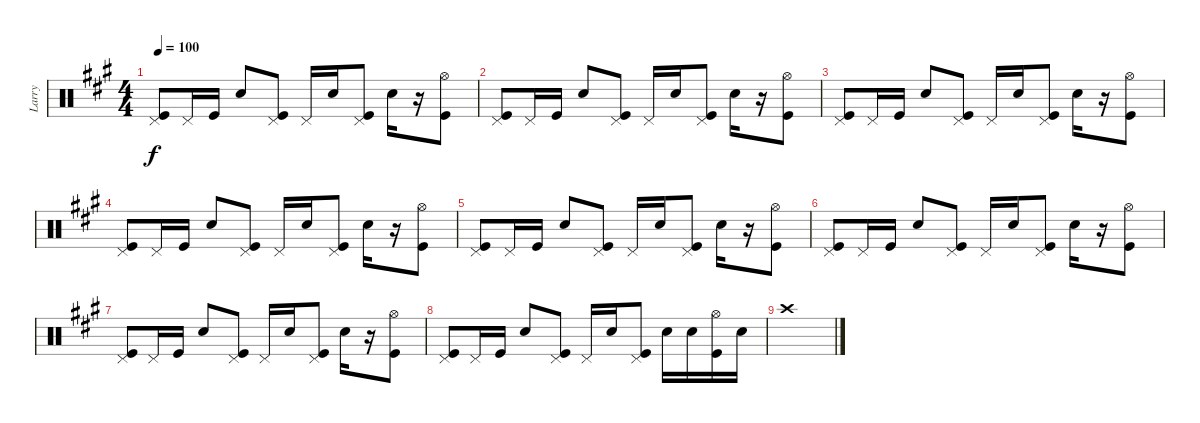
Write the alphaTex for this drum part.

\track ("Larry" "Larry") {instrument percussion}
\staff {score}
\articulation defaults
\ts (4 4)
\tempo 100
\clef neutral
\ks f#minor
("Pedal Hi-Hat (hit)" "Kick (hit)").8{dy f} "Pedal Hi-Hat (hit)".16 "Kick (hit)".16 "Snare (hit) 2".8 ("Pedal Hi-Hat (hit)" "Kick (hit)").8 "Pedal Hi-Hat (hit)".16 "Snare (hit) 2".16 ("Pedal Hi-Hat (hit)" "Kick (hit)").8 "Snare (hit) 2".16 r.16 ("Hi-Hat (open)" "Kick (hit)").8 |
("Pedal Hi-Hat (hit)" "Kick (hit)").8 "Pedal Hi-Hat (hit)".16 "Kick (hit)".16 "Snare (hit) 2".8 ("Pedal Hi-Hat (hit)" "Kick (hit)").8 "Pedal Hi-Hat (hit)".16 "Snare (hit) 2".16 ("Pedal Hi-Hat (hit)" "Kick (hit)").8 "Snare (hit) 2".16 r.16 ("Hi-Hat (open)" "Kick (hit)").8 |
("Pedal Hi-Hat (hit)" "Kick (hit)").8 "Pedal Hi-Hat (hit)".16 "Kick (hit)".16 "Snare (hit) 2".8 ("Pedal Hi-Hat (hit)" "Kick (hit)").8 "Pedal Hi-Hat (hit)".16 "Snare (hit) 2".16 ("Pedal Hi-Hat (hit)" "Kick (hit)").8 "Snare (hit) 2".16 r.16 ("Hi-Hat (open)" "Kick (hit)").8 |
("Pedal Hi-Hat (hit)" "Kick (hit)").8 "Pedal Hi-Hat (hit)".16 "Kick (hit)".16 "Snare (hit) 2".8 ("Pedal Hi-Hat (hit)" "Kick (hit)").8 "Pedal Hi-Hat (hit)".16 "Snare (hit) 2".16 ("Pedal Hi-Hat (hit)" "Kick (hit)").8 "Snare (hit) 2".16 r.16 ("Hi-Hat (open)" "Kick (hit)").8 |
("Pedal Hi-Hat (hit)" "Kick (hit)").8 "Pedal Hi-Hat (hit)".16 "Kick (hit)".16 "Snare (hit) 2".8 ("Pedal Hi-Hat (hit)" "Kick (hit)").8 "Pedal Hi-Hat (hit)".16 "Snare (hit) 2".16 ("Pedal Hi-Hat (hit)" "Kick (hit)").8 "Snare (hit) 2".16 r.16 ("Hi-Hat (open)" "Kick (hit)").8 |
("Pedal Hi-Hat (hit)" "Kick (hit)").8 "Pedal Hi-Hat (hit)".16 "Kick (hit)".16 "Snare (hit) 2".8 ("Pedal Hi-Hat (hit)" "Kick (hit)").8 "Pedal Hi-Hat (hit)".16 "Snare (hit) 2".16 ("Pedal Hi-Hat (hit)" "Kick (hit)").8 "Snare (hit) 2".16 r.16 ("Hi-Hat (open)" "Kick (hit)").8 |
("Pedal Hi-Hat (hit)" "Kick (hit)").8 "Pedal Hi-Hat (hit)".16 "Kick (hit)".16 "Snare (hit) 2".8 ("Pedal Hi-Hat (hit)" "Kick (hit)").8 "Pedal Hi-Hat (hit)".16 "Snare (hit) 2".16 ("Pedal Hi-Hat (hit)" "Kick (hit)").8 "Snare (hit) 2".16 r.16 ("Hi-Hat (open)" "Kick (hit)").8 |
("Pedal Hi-Hat (hit)" "Kick (hit)").8 "Pedal Hi-Hat (hit)".16 "Kick (hit)".16 "Snare (hit) 2".8 ("Pedal Hi-Hat (hit)" "Kick (hit)").8 "Pedal Hi-Hat (hit)".16 "Snare (hit) 2".16 ("Pedal Hi-Hat (hit)" "Kick (hit)").8 "Snare (hit) 2".16 "Snare (hit) 2".16 ("Hi-Hat (open)" "Kick (hit)").16 "Snare (hit) 2".16 |
"Crash high (hit)".1
